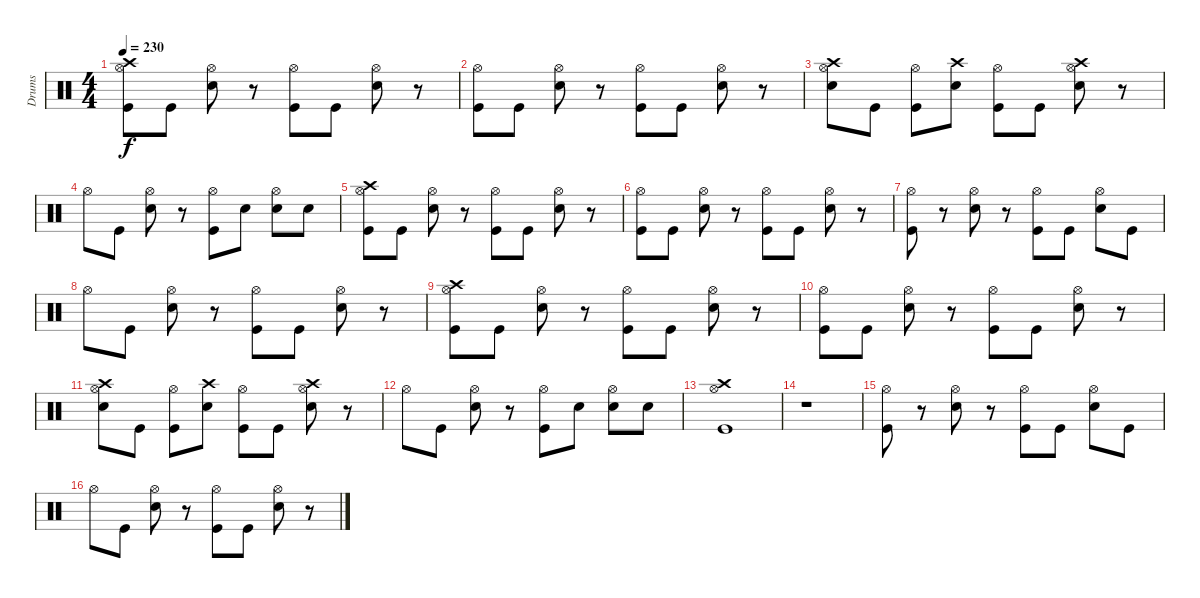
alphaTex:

\track ("Drums" "Drums") {instrument percussion}
\staff {score}
\articulation defaults
\ts (4 4)
\tempo 230
\clef neutral
\ks c
("Crash high (hit)" "Kick (hit)" "Hi-Hat (open)").8{dy f} "Kick (hit)".8 ("Electric Snare (hit)" "Hi-Hat (open)").8 r.8 ("Kick (hit)" "Hi-Hat (open)").8 "Kick (hit)".8 ("Electric Snare (hit)" "Hi-Hat (open)").8 r.8 |
("Kick (hit)" "Hi-Hat (open)").8 "Kick (hit)".8 ("Electric Snare (hit)" "Hi-Hat (open)").8 r.8 ("Kick (hit)" "Hi-Hat (open)").8 "Kick (hit)".8 ("Electric Snare (hit)" "Hi-Hat (open)").8 r.8 |
("Crash high (hit)" "Electric Snare (hit)" "Hi-Hat (open)").8 "Kick (hit)".8 ("Kick (hit)" "Hi-Hat (open)").8 ("Crash high (hit)" "Electric Snare (hit)").8 ("Kick (hit)" "Hi-Hat (open)").8 "Kick (hit)".8 ("Crash high (hit)" "Electric Snare (hit)" "Hi-Hat (open)").8 r.8 |
"Hi-Hat (open)".8 "Kick (hit)".8 ("Electric Snare (hit)" "Hi-Hat (open)").8 r.8 ("Kick (hit)" "Hi-Hat (open)").8 "Electric Snare (hit)".8 ("Electric Snare (hit)" "Hi-Hat (open)").8 "Electric Snare (hit)".8 |
("Crash high (hit)" "Kick (hit)" "Hi-Hat (open)").8 "Kick (hit)".8 ("Electric Snare (hit)" "Hi-Hat (open)").8 r.8 ("Kick (hit)" "Hi-Hat (open)").8 "Kick (hit)".8 ("Electric Snare (hit)" "Hi-Hat (open)").8 r.8 |
("Kick (hit)" "Hi-Hat (open)").8 "Kick (hit)".8 ("Electric Snare (hit)" "Hi-Hat (open)").8 r.8 ("Kick (hit)" "Hi-Hat (open)").8 "Kick (hit)".8 ("Electric Snare (hit)" "Hi-Hat (open)").8 r.8 |
("Kick (hit)" "Hi-Hat (open)").8 r.8 ("Electric Snare (hit)" "Hi-Hat (open)").8 r.8 ("Kick (hit)" "Hi-Hat (open)").8 "Kick (hit)".8 ("Electric Snare (hit)" "Hi-Hat (open)").8 "Kick (hit)".8 |
"Hi-Hat (open)".8 "Kick (hit)".8 ("Electric Snare (hit)" "Hi-Hat (open)").8 r.8 ("Kick (hit)" "Hi-Hat (open)").8 "Kick (hit)".8 ("Electric Snare (hit)" "Hi-Hat (open)").8 r.8 |
("Crash high (hit)" "Kick (hit)" "Hi-Hat (open)").8 "Kick (hit)".8 ("Electric Snare (hit)" "Hi-Hat (open)").8 r.8 ("Kick (hit)" "Hi-Hat (open)").8 "Kick (hit)".8 ("Electric Snare (hit)" "Hi-Hat (open)").8 r.8 |
("Kick (hit)" "Hi-Hat (open)").8 "Kick (hit)".8 ("Electric Snare (hit)" "Hi-Hat (open)").8 r.8 ("Kick (hit)" "Hi-Hat (open)").8 "Kick (hit)".8 ("Electric Snare (hit)" "Hi-Hat (open)").8 r.8 |
("Crash high (hit)" "Electric Snare (hit)" "Hi-Hat (open)").8 "Kick (hit)".8 ("Kick (hit)" "Hi-Hat (open)").8 ("Crash high (hit)" "Electric Snare (hit)").8 ("Kick (hit)" "Hi-Hat (open)").8 "Kick (hit)".8 ("Crash high (hit)" "Electric Snare (hit)" "Hi-Hat (open)").8 r.8 |
"Hi-Hat (open)".8 "Kick (hit)".8 ("Electric Snare (hit)" "Hi-Hat (open)").8 r.8 ("Kick (hit)" "Hi-Hat (open)").8 "Electric Snare (hit)".8 ("Electric Snare (hit)" "Hi-Hat (open)").8 "Electric Snare (hit)".8 |
("Crash high (hit)" "Kick (hit)" "Hi-Hat (open)").1 |
r.1 |
("Kick (hit)" "Hi-Hat (open)").8 r.8 ("Electric Snare (hit)" "Hi-Hat (open)").8 r.8 ("Kick (hit)" "Hi-Hat (open)").8 "Kick (hit)".8 ("Electric Snare (hit)" "Hi-Hat (open)").8 "Kick (hit)".8 |
"Hi-Hat (open)".8 "Kick (hit)".8 ("Electric Snare (hit)" "Hi-Hat (open)").8 r.8 ("Kick (hit)" "Hi-Hat (open)").8 "Kick (hit)".8 ("Electric Snare (hit)" "Hi-Hat (open)").8 r.8
